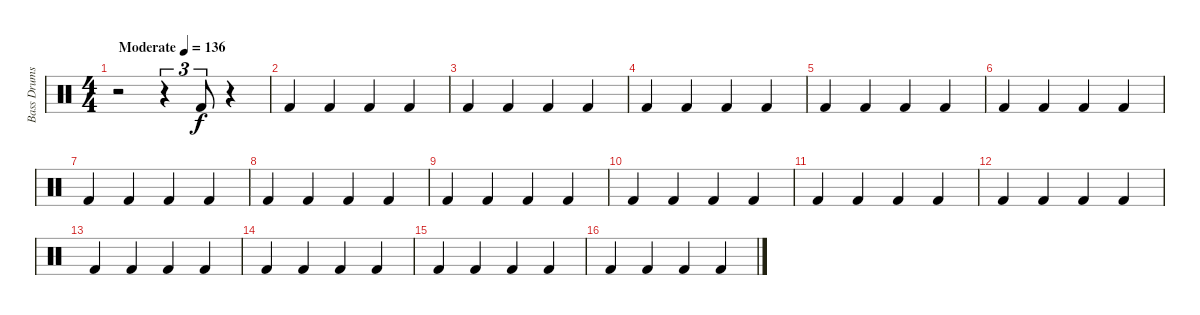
\track ("Bass Drums" "Bass Drums") {instrument percussion}
\staff {score}
\articulation defaults
\ts (4 4)
\tempo (136 "Moderate")
\clef neutral
\ks c
r.2{dy f} r.4{tu (3 2)} "Kick (hit) 2".8{tu (3 2)} r.4 |
"Kick (hit) 2".4 "Kick (hit) 2".4 "Kick (hit) 2".4 "Kick (hit) 2".4 |
"Kick (hit) 2".4 "Kick (hit) 2".4 "Kick (hit) 2".4 "Kick (hit) 2".4 |
"Kick (hit) 2".4 "Kick (hit) 2".4 "Kick (hit) 2".4 "Kick (hit) 2".4 |
"Kick (hit) 2".4 "Kick (hit) 2".4 "Kick (hit) 2".4 "Kick (hit) 2".4 |
"Kick (hit) 2".4 "Kick (hit) 2".4 "Kick (hit) 2".4 "Kick (hit) 2".4 |
"Kick (hit) 2".4 "Kick (hit) 2".4 "Kick (hit) 2".4 "Kick (hit) 2".4 |
"Kick (hit) 2".4 "Kick (hit) 2".4 "Kick (hit) 2".4 "Kick (hit) 2".4 |
"Kick (hit) 2".4 "Kick (hit) 2".4 "Kick (hit) 2".4 "Kick (hit) 2".4 |
"Kick (hit) 2".4 "Kick (hit) 2".4 "Kick (hit) 2".4 "Kick (hit) 2".4 |
"Kick (hit) 2".4 "Kick (hit) 2".4 "Kick (hit) 2".4 "Kick (hit) 2".4 |
"Kick (hit) 2".4 "Kick (hit) 2".4 "Kick (hit) 2".4 "Kick (hit) 2".4 |
"Kick (hit) 2".4 "Kick (hit) 2".4 "Kick (hit) 2".4 "Kick (hit) 2".4 |
"Kick (hit) 2".4 "Kick (hit) 2".4 "Kick (hit) 2".4 "Kick (hit) 2".4 |
"Kick (hit) 2".4 "Kick (hit) 2".4 "Kick (hit) 2".4 "Kick (hit) 2".4 |
"Kick (hit) 2".4 "Kick (hit) 2".4 "Kick (hit) 2".4 "Kick (hit) 2".4
